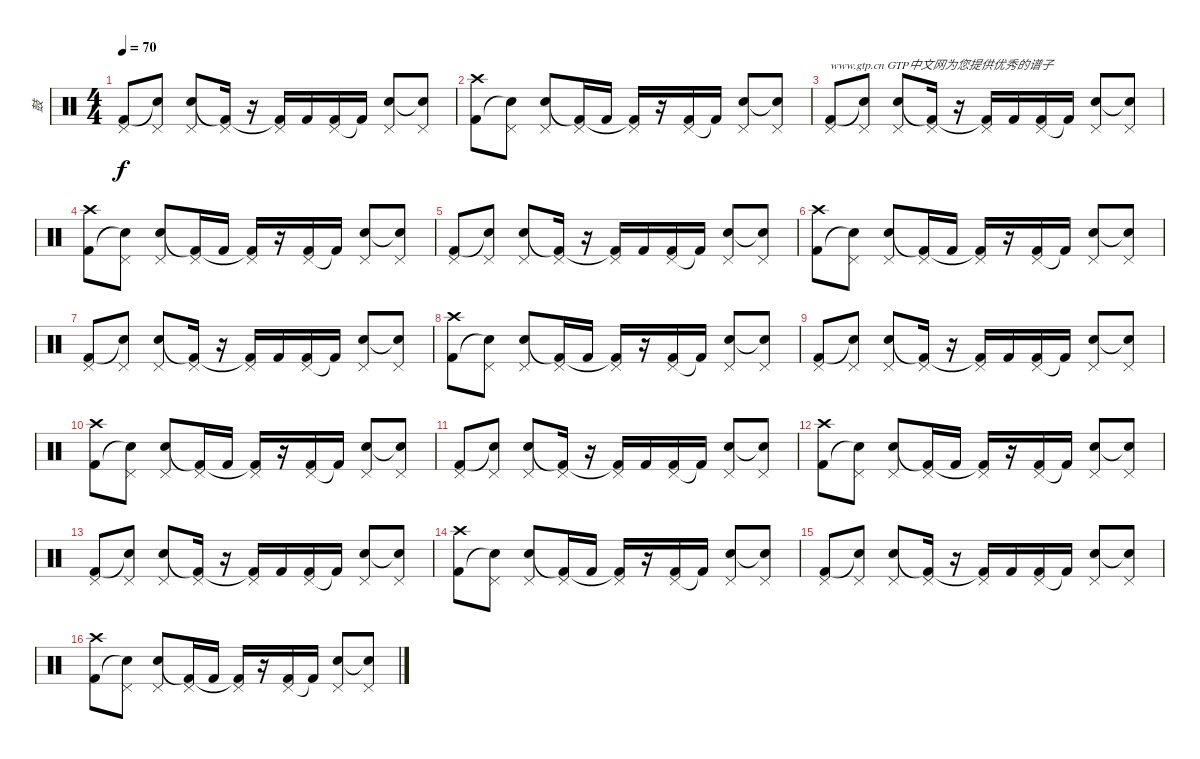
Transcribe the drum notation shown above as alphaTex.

\track ("鼓" "鼓") {instrument percussion}
\staff {score}
\articulation defaults
\ts (4 4)
\tempo 70
\clef neutral
\ks c
("Pedal Hi-Hat (hit)" "Kick (hit) 2").8{dy f} ("Pedal Hi-Hat (hit)" "Snare (hit)"{t}).8 ("Pedal Hi-Hat (hit)" "Electric Snare (hit)").8 ("Pedal Hi-Hat (hit)" "Kick (hit) 2"{t}).16 r.16 ("Pedal Hi-Hat (hit)" "Kick (hit) 2"{t}).16 "Kick (hit) 2".16 ("Pedal Hi-Hat (hit)" "Kick (hit) 2").16 "Kick (hit) 2"{t}.16 ("Pedal Hi-Hat (hit)" "Electric Snare (hit)").8 ("Pedal Hi-Hat (hit)" "Snare (hit)"{t}).8 |
("Crash high (hit)" "Kick (hit) 2").8 ("Pedal Hi-Hat (hit)" "Snare (hit)"{t}).8 ("Pedal Hi-Hat (hit)" "Electric Snare (hit)").8 ("Pedal Hi-Hat (hit)" "Kick (hit) 2"{t}).16 "Kick (hit) 2".16 ("Pedal Hi-Hat (hit)" "Kick (hit) 2"{t}).16 r.16 ("Pedal Hi-Hat (hit)" "Kick (hit) 2").16 "Kick (hit) 2"{t}.16 ("Pedal Hi-Hat (hit)" "Electric Snare (hit)").8 ("Pedal Hi-Hat (hit)" "Snare (hit)"{t}).8 |
("Pedal Hi-Hat (hit)" "Kick (hit) 2").8{txt "www.gtp.cn GTP中文网为您提供优秀的谱子"} ("Pedal Hi-Hat (hit)" "Snare (hit)"{t}).8 ("Pedal Hi-Hat (hit)" "Electric Snare (hit)").8 ("Pedal Hi-Hat (hit)" "Kick (hit) 2"{t}).16 r.16 ("Pedal Hi-Hat (hit)" "Kick (hit) 2"{t}).16 "Kick (hit) 2".16 ("Pedal Hi-Hat (hit)" "Kick (hit) 2").16 "Kick (hit) 2"{t}.16 ("Pedal Hi-Hat (hit)" "Electric Snare (hit)").8 ("Pedal Hi-Hat (hit)" "Snare (hit)"{t}).8 |
("Crash high (hit)" "Kick (hit) 2").8 ("Pedal Hi-Hat (hit)" "Snare (hit)"{t}).8 ("Pedal Hi-Hat (hit)" "Electric Snare (hit)").8 ("Pedal Hi-Hat (hit)" "Kick (hit) 2"{t}).16 "Kick (hit) 2".16 ("Pedal Hi-Hat (hit)" "Kick (hit) 2"{t}).16 r.16 ("Pedal Hi-Hat (hit)" "Kick (hit) 2").16 "Kick (hit) 2"{t}.16 ("Pedal Hi-Hat (hit)" "Electric Snare (hit)").8 ("Pedal Hi-Hat (hit)" "Snare (hit)"{t}).8 |
("Pedal Hi-Hat (hit)" "Kick (hit) 2").8 ("Pedal Hi-Hat (hit)" "Snare (hit)"{t}).8 ("Pedal Hi-Hat (hit)" "Electric Snare (hit)").8 ("Pedal Hi-Hat (hit)" "Kick (hit) 2"{t}).16 r.16 ("Pedal Hi-Hat (hit)" "Kick (hit) 2"{t}).16 "Kick (hit) 2".16 ("Pedal Hi-Hat (hit)" "Kick (hit) 2").16 "Kick (hit) 2"{t}.16 ("Pedal Hi-Hat (hit)" "Electric Snare (hit)").8 ("Pedal Hi-Hat (hit)" "Snare (hit)"{t}).8 |
("Crash high (hit)" "Kick (hit) 2").8 ("Pedal Hi-Hat (hit)" "Snare (hit)"{t}).8 ("Pedal Hi-Hat (hit)" "Electric Snare (hit)").8 ("Pedal Hi-Hat (hit)" "Kick (hit) 2"{t}).16 "Kick (hit) 2".16 ("Pedal Hi-Hat (hit)" "Kick (hit) 2"{t}).16 r.16 ("Pedal Hi-Hat (hit)" "Kick (hit) 2").16 "Kick (hit) 2"{t}.16 ("Pedal Hi-Hat (hit)" "Electric Snare (hit)").8 ("Pedal Hi-Hat (hit)" "Snare (hit)"{t}).8 |
("Pedal Hi-Hat (hit)" "Kick (hit) 2").8 ("Pedal Hi-Hat (hit)" "Snare (hit)"{t}).8 ("Pedal Hi-Hat (hit)" "Electric Snare (hit)").8 ("Pedal Hi-Hat (hit)" "Kick (hit) 2"{t}).16 r.16 ("Pedal Hi-Hat (hit)" "Kick (hit) 2"{t}).16 "Kick (hit) 2".16 ("Pedal Hi-Hat (hit)" "Kick (hit) 2").16 "Kick (hit) 2"{t}.16 ("Pedal Hi-Hat (hit)" "Electric Snare (hit)").8 ("Pedal Hi-Hat (hit)" "Snare (hit)"{t}).8 |
("Crash high (hit)" "Kick (hit) 2").8 ("Pedal Hi-Hat (hit)" "Snare (hit)"{t}).8 ("Pedal Hi-Hat (hit)" "Electric Snare (hit)").8 ("Pedal Hi-Hat (hit)" "Kick (hit) 2"{t}).16 "Kick (hit) 2".16 ("Pedal Hi-Hat (hit)" "Kick (hit) 2"{t}).16 r.16 ("Pedal Hi-Hat (hit)" "Kick (hit) 2").16 "Kick (hit) 2"{t}.16 ("Pedal Hi-Hat (hit)" "Electric Snare (hit)").8 ("Pedal Hi-Hat (hit)" "Snare (hit)"{t}).8 |
("Pedal Hi-Hat (hit)" "Kick (hit) 2").8 ("Pedal Hi-Hat (hit)" "Snare (hit)"{t}).8 ("Pedal Hi-Hat (hit)" "Electric Snare (hit)").8 ("Pedal Hi-Hat (hit)" "Kick (hit) 2"{t}).16 r.16 ("Pedal Hi-Hat (hit)" "Kick (hit) 2"{t}).16 "Kick (hit) 2".16 ("Pedal Hi-Hat (hit)" "Kick (hit) 2").16 "Kick (hit) 2"{t}.16 ("Pedal Hi-Hat (hit)" "Electric Snare (hit)").8 ("Pedal Hi-Hat (hit)" "Snare (hit)"{t}).8 |
("Crash high (hit)" "Kick (hit) 2").8 ("Pedal Hi-Hat (hit)" "Snare (hit)"{t}).8 ("Pedal Hi-Hat (hit)" "Electric Snare (hit)").8 ("Pedal Hi-Hat (hit)" "Kick (hit) 2"{t}).16 "Kick (hit) 2".16 ("Pedal Hi-Hat (hit)" "Kick (hit) 2"{t}).16 r.16 ("Pedal Hi-Hat (hit)" "Kick (hit) 2").16 "Kick (hit) 2"{t}.16 ("Pedal Hi-Hat (hit)" "Electric Snare (hit)").8 ("Pedal Hi-Hat (hit)" "Snare (hit)"{t}).8 |
("Pedal Hi-Hat (hit)" "Kick (hit) 2").8 ("Pedal Hi-Hat (hit)" "Snare (hit)"{t}).8 ("Pedal Hi-Hat (hit)" "Electric Snare (hit)").8 ("Pedal Hi-Hat (hit)" "Kick (hit) 2"{t}).16 r.16 ("Pedal Hi-Hat (hit)" "Kick (hit) 2"{t}).16 "Kick (hit) 2".16 ("Pedal Hi-Hat (hit)" "Kick (hit) 2").16 "Kick (hit) 2"{t}.16 ("Pedal Hi-Hat (hit)" "Electric Snare (hit)").8 ("Pedal Hi-Hat (hit)" "Snare (hit)"{t}).8 |
("Crash high (hit)" "Kick (hit) 2").8 ("Pedal Hi-Hat (hit)" "Snare (hit)"{t}).8 ("Pedal Hi-Hat (hit)" "Electric Snare (hit)").8 ("Pedal Hi-Hat (hit)" "Kick (hit) 2"{t}).16 "Kick (hit) 2".16 ("Pedal Hi-Hat (hit)" "Kick (hit) 2"{t}).16 r.16 ("Pedal Hi-Hat (hit)" "Kick (hit) 2").16 "Kick (hit) 2"{t}.16 ("Pedal Hi-Hat (hit)" "Electric Snare (hit)").8 ("Pedal Hi-Hat (hit)" "Snare (hit)"{t}).8 |
("Pedal Hi-Hat (hit)" "Kick (hit) 2").8 ("Pedal Hi-Hat (hit)" "Snare (hit)"{t}).8 ("Pedal Hi-Hat (hit)" "Electric Snare (hit)").8 ("Pedal Hi-Hat (hit)" "Kick (hit) 2"{t}).16 r.16 ("Pedal Hi-Hat (hit)" "Kick (hit) 2"{t}).16 "Kick (hit) 2".16 ("Pedal Hi-Hat (hit)" "Kick (hit) 2").16 "Kick (hit) 2"{t}.16 ("Pedal Hi-Hat (hit)" "Electric Snare (hit)").8 ("Pedal Hi-Hat (hit)" "Snare (hit)"{t}).8 |
("Crash high (hit)" "Kick (hit) 2").8 ("Pedal Hi-Hat (hit)" "Snare (hit)"{t}).8 ("Pedal Hi-Hat (hit)" "Electric Snare (hit)").8 ("Pedal Hi-Hat (hit)" "Kick (hit) 2"{t}).16 "Kick (hit) 2".16 ("Pedal Hi-Hat (hit)" "Kick (hit) 2"{t}).16 r.16 ("Pedal Hi-Hat (hit)" "Kick (hit) 2").16 "Kick (hit) 2"{t}.16 ("Pedal Hi-Hat (hit)" "Electric Snare (hit)").8 ("Pedal Hi-Hat (hit)" "Snare (hit)"{t}).8 |
("Pedal Hi-Hat (hit)" "Kick (hit) 2").8 ("Pedal Hi-Hat (hit)" "Snare (hit)"{t}).8 ("Pedal Hi-Hat (hit)" "Electric Snare (hit)").8 ("Pedal Hi-Hat (hit)" "Kick (hit) 2"{t}).16 r.16 ("Pedal Hi-Hat (hit)" "Kick (hit) 2"{t}).16 "Kick (hit) 2".16 ("Pedal Hi-Hat (hit)" "Kick (hit) 2").16 "Kick (hit) 2"{t}.16 ("Pedal Hi-Hat (hit)" "Electric Snare (hit)").8 ("Pedal Hi-Hat (hit)" "Snare (hit)"{t}).8 |
("Crash high (hit)" "Kick (hit) 2").8 ("Pedal Hi-Hat (hit)" "Snare (hit)"{t}).8 ("Pedal Hi-Hat (hit)" "Electric Snare (hit)").8 ("Pedal Hi-Hat (hit)" "Kick (hit) 2"{t}).16 "Kick (hit) 2".16 ("Pedal Hi-Hat (hit)" "Kick (hit) 2"{t}).16 r.16 ("Pedal Hi-Hat (hit)" "Kick (hit) 2").16 "Kick (hit) 2"{t}.16 ("Pedal Hi-Hat (hit)" "Electric Snare (hit)").8 ("Pedal Hi-Hat (hit)" "Snare (hit)"{t}).8
